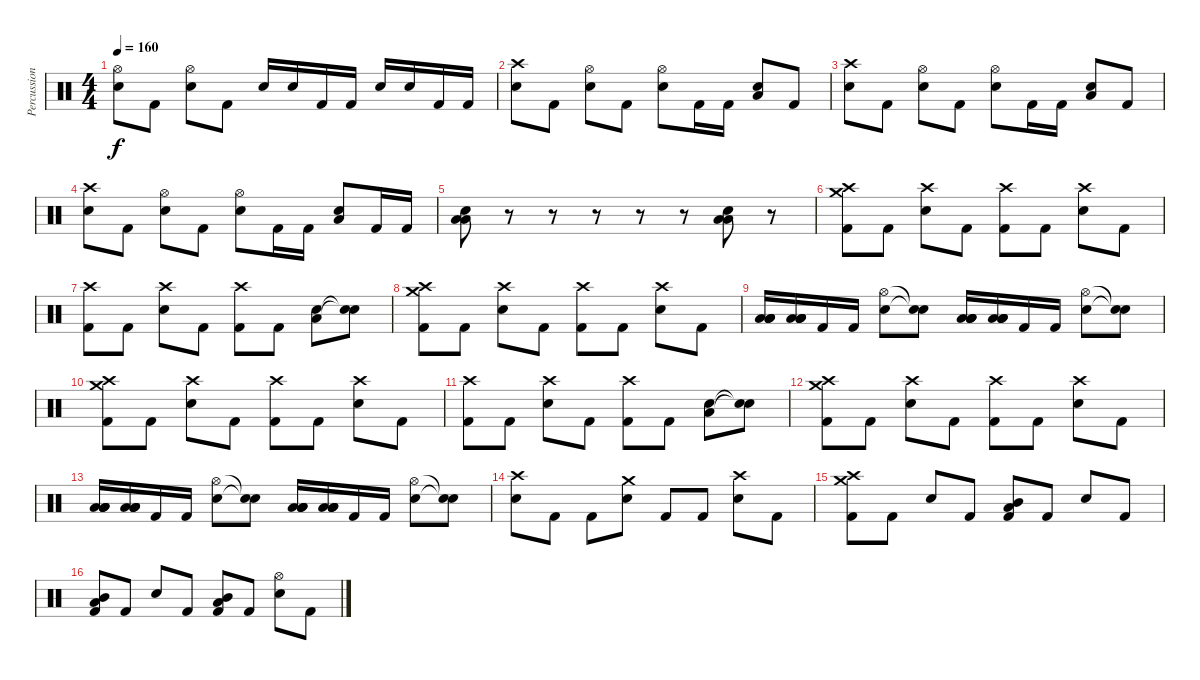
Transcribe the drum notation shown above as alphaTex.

\track ("Percussion" "Percussion") {instrument percussion}
\staff {score}
\articulation defaults
\ts (4 4)
\tempo 160
\clef neutral
\ks c
("Hi-Hat (open)" "Snare (hit) 2").8{dy f} "Kick (hit) 2".8 ("Hi-Hat (open)" "Snare (hit) 2").8 "Kick (hit) 2".8 "Snare (hit) 2".16 "Snare (hit) 2".16 "Kick (hit) 2".16 "Kick (hit) 2".16 "Snare (hit) 2".16 "Snare (hit) 2".16 "Kick (hit) 2".16 "Kick (hit) 2".16 |
("Crash high (hit)" "Snare (hit) 2").8 "Kick (hit) 2".8 ("Hi-Hat (open)" "Snare (hit) 2").8 "Kick (hit) 2".8 ("Hi-Hat (open)" "Snare (hit) 2").8 "Kick (hit) 2".16 "Kick (hit) 2".16 ("Low Floor Tom (hit)" "Snare (hit) 2").8 "Kick (hit) 2".8 |
("Crash high (hit)" "Snare (hit) 2").8 "Kick (hit) 2".8 ("Hi-Hat (open)" "Snare (hit) 2").8 "Kick (hit) 2".8 ("Hi-Hat (open)" "Snare (hit) 2").8 "Kick (hit) 2".16 "Kick (hit) 2".16 ("Low Floor Tom (hit)" "Snare (hit) 2").8 "Kick (hit) 2".8 |
("Crash high (hit)" "Snare (hit) 2").8 "Kick (hit) 2".8 ("Hi-Hat (open)" "Snare (hit) 2").8 "Kick (hit) 2".8 ("Hi-Hat (open)" "Snare (hit) 2").8 "Kick (hit) 2".16 "Kick (hit) 2".16 ("Low Floor Tom (hit)" "Snare (hit) 2").8 "Kick (hit) 2".16 "Kick (hit) 2".16 |
("Low Floor Tom (hit)" "Low Floor Tom (hit)" "Snare (hit) 2").8 r.8 r.8 r.8 r.8 r.8 ("Low Floor Tom (hit)" "Low Floor Tom (hit)" "Snare (hit) 2").8 r.8 |
("Crash high (hit)" "Crash medium (hit)" "Kick (hit) 2").8 "Kick (hit) 2".8 ("Crash high (hit)" "Snare (hit) 2").8 "Kick (hit) 2".8 ("Crash high (hit)" "Kick (hit) 2").8 "Kick (hit) 2".8 ("Crash high (hit)" "Snare (hit) 2").8 "Kick (hit) 2".8 |
("Crash high (hit)" "Kick (hit) 2").8 "Kick (hit) 2".8 ("Crash high (hit)" "Snare (hit) 2").8 "Kick (hit) 2".8 ("Crash high (hit)" "Kick (hit) 2").8 "Kick (hit) 2".8 ("Low Floor Tom (hit)" "Snare (hit) 2").8 ("Snare (hit)"{t} "Snare (hit)"{t}).8 |
("Crash high (hit)" "Crash medium (hit)" "Kick (hit) 2").8 "Kick (hit) 2".8 ("Crash high (hit)" "Snare (hit) 2").8 "Kick (hit) 2".8 ("Crash high (hit)" "Kick (hit) 2").8 "Kick (hit) 2".8 ("Crash high (hit)" "Snare (hit) 2").8 "Kick (hit) 2".8 |
("Low Floor Tom (hit)" "Low Floor Tom (hit)" "Low Floor Tom (hit)" "Low Floor Tom (hit)").16 ("Low Floor Tom (hit)" "Low Floor Tom (hit)" "Low Floor Tom (hit)" "Low Floor Tom (hit)").16 "Kick (hit) 2".16 "Kick (hit) 2".16 ("Hi-Hat (open)" "Snare (hit) 2").8 ("Snare (hit)"{t} "Snare (hit)"{t}).8 ("Low Floor Tom (hit)" "Low Floor Tom (hit)" "Low Floor Tom (hit)" "Low Floor Tom (hit)").16 ("Low Floor Tom (hit)" "Low Floor Tom (hit)" "Low Floor Tom (hit)" "Low Floor Tom (hit)").16 "Kick (hit) 2".16 "Kick (hit) 2".16 ("Hi-Hat (open)" "Snare (hit) 2").8 ("Snare (hit)"{t} "Snare (hit)"{t}).8 |
("Crash high (hit)" "Crash medium (hit)" "Kick (hit) 2").8 "Kick (hit) 2".8 ("Crash high (hit)" "Snare (hit) 2").8 "Kick (hit) 2".8 ("Crash high (hit)" "Kick (hit) 2").8 "Kick (hit) 2".8 ("Crash high (hit)" "Snare (hit) 2").8 "Kick (hit) 2".8 |
("Crash high (hit)" "Kick (hit) 2").8 "Kick (hit) 2".8 ("Crash high (hit)" "Snare (hit) 2").8 "Kick (hit) 2".8 ("Crash high (hit)" "Kick (hit) 2").8 "Kick (hit) 2".8 ("Low Floor Tom (hit)" "Snare (hit) 2").8 ("Snare (hit)"{t} "Snare (hit)"{t}).8 |
("Crash high (hit)" "Crash medium (hit)" "Kick (hit) 2").8 "Kick (hit) 2".8 ("Crash high (hit)" "Snare (hit) 2").8 "Kick (hit) 2".8 ("Crash high (hit)" "Kick (hit) 2").8 "Kick (hit) 2".8 ("Crash high (hit)" "Snare (hit) 2").8 "Kick (hit) 2".8 |
("Low Floor Tom (hit)" "Low Floor Tom (hit)" "Low Floor Tom (hit)" "Low Floor Tom (hit)").16 ("Low Floor Tom (hit)" "Low Floor Tom (hit)" "Low Floor Tom (hit)" "Low Floor Tom (hit)").16 "Kick (hit) 2".16 "Kick (hit) 2".16 ("Hi-Hat (open)" "Snare (hit) 2").8 ("Snare (hit)"{t} "Snare (hit)"{t}).8 ("Low Floor Tom (hit)" "Low Floor Tom (hit)" "Low Floor Tom (hit)" "Low Floor Tom (hit)").16 ("Low Floor Tom (hit)" "Low Floor Tom (hit)" "Low Floor Tom (hit)" "Low Floor Tom (hit)").16 "Kick (hit) 2".16 "Kick (hit) 2".16 ("Hi-Hat (open)" "Snare (hit) 2").8 ("Snare (hit)"{t} "Snare (hit)"{t}).8 |
("Crash high (hit)" "Snare (hit) 2").8 "Kick (hit) 2".8 "Kick (hit) 2".8 ("Crash medium (hit)" "Snare (hit) 2").8 "Kick (hit) 2".8 "Kick (hit) 2".8 ("Crash high (hit)" "Snare (hit) 2").8 "Kick (hit) 2".8 |
("Crash high (hit)" "Crash medium (hit)" "Kick (hit) 2").8 "Kick (hit) 2".8 "Snare (hit) 2".8 "Kick (hit) 2".8 ("Mid Tom (hit)" "Low Floor Tom (hit)" "Kick (hit) 2").8 "Kick (hit) 2".8 "Snare (hit) 2".8 "Kick (hit) 2".8 |
("Mid Tom (hit)" "Low Floor Tom (hit)" "Kick (hit) 2").8 "Kick (hit) 2".8 "Snare (hit) 2".8 "Kick (hit) 2".8 ("Mid Tom (hit)" "Low Floor Tom (hit)" "Kick (hit) 2").8 "Kick (hit) 2".8 ("Hi-Hat (open)" "Snare (hit) 2").8 "Kick (hit) 2".8
